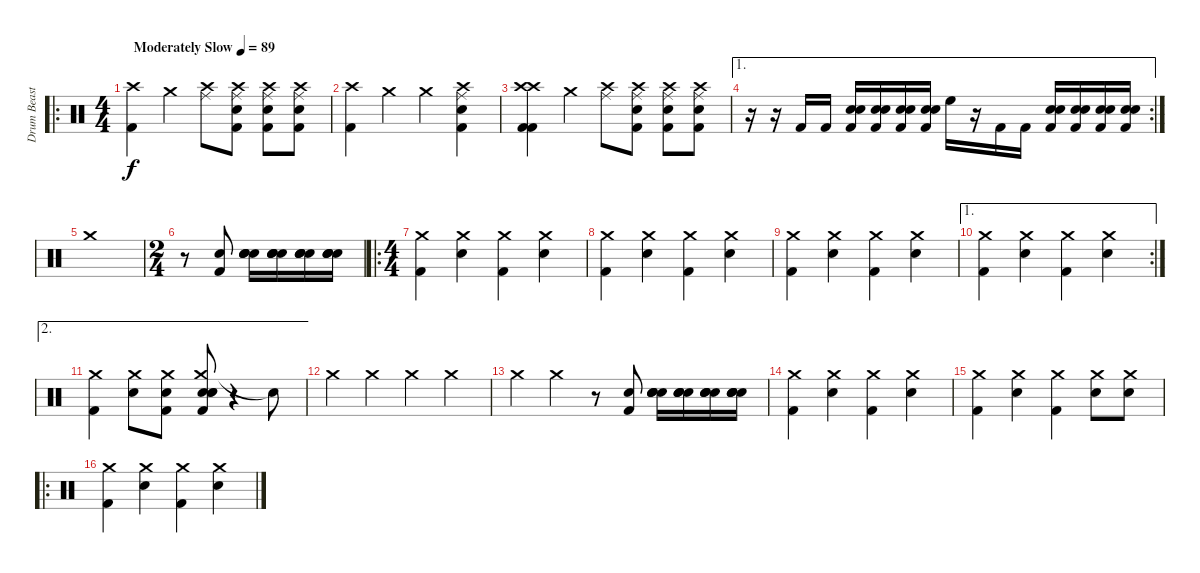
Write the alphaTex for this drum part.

\track ("Drum Beast Lars" "Drum Beast") {instrument percussion}
\staff {score}
\articulation defaults
\ro
\ts (4 4)
\tempo (89 "Moderately Slow")
\clef neutral
\ks c
("Crash high (hit)" "Kick (hit) 2").4{dy f} "Crash medium (hit)".4 ("Ride (middle)" "Crash high (hit)").8 ("Ride (middle)" "Crash high (hit)" "Electric Snare (hit)" "Kick (hit) 2").8 ("Ride (middle)" "Crash high (hit)" "Electric Snare (hit)" "Kick (hit) 2").8 ("Ride (middle)" "Crash high (hit)" "Electric Snare (hit)" "Kick (hit) 2").8 |
("Crash high (hit)" "Kick (hit) 2").4 "Crash medium (hit)".4 "Crash medium (hit)".4 ("Ride (middle)" "Crash high (hit)" "Electric Snare (hit)" "Kick (hit) 2").4 |
("Crash high (hit)" "Crash high (hit)" "Kick (hit) 2" "Kick (hit) 2").4 "Crash medium (hit)".4 ("Ride (middle)" "Crash high (hit)").8 ("Ride (middle)" "Crash high (hit)" "Electric Snare (hit)" "Kick (hit) 2").8 ("Ride (middle)" "Crash high (hit)" "Electric Snare (hit)" "Kick (hit) 2").8 ("Ride (middle)" "Crash high (hit)" "Electric Snare (hit)" "Kick (hit) 2").8 |
\ae 1
\rc 2
r.16 r.16 "Kick (hit) 2".16 "Kick (hit) 2".16 ("Snare (hit) 2" "Snare (hit) 2" "Kick (hit) 2").16 ("Snare (hit) 2" "Snare (hit) 2" "Kick (hit) 2").16 ("Snare (hit) 2" "Snare (hit) 2" "Kick (hit) 2").16 ("Snare (hit) 2" "Snare (hit) 2" "Kick (hit) 2").16 "High Floor Tom (hit)".16 r.16 "Kick (hit) 2".16 "Kick (hit) 2".16 ("Electric Snare (hit)" "Electric Snare (hit)" "Kick (hit) 2").16 ("Electric Snare (hit)" "Electric Snare (hit)" "Kick (hit) 2").16 ("Electric Snare (hit)" "Electric Snare (hit)" "Kick (hit) 2").16 ("Electric Snare (hit)" "Electric Snare (hit)" "Kick (hit) 2").16 |
"Crash medium (hit)".1 |
\ts (2 4)
r.8 ("Electric Snare (hit)" "Kick (hit) 2").8 ("Electric Snare (hit)" "Electric Snare (hit)" "Electric Snare (hit)" "Electric Snare (hit)").16 ("Electric Snare (hit)" "Electric Snare (hit)" "Electric Snare (hit)" "Electric Snare (hit)").16 ("Electric Snare (hit)" "Electric Snare (hit)" "Electric Snare (hit)" "Electric Snare (hit)").16 ("Electric Snare (hit)" "Electric Snare (hit)" "Electric Snare (hit)" "Electric Snare (hit)").16 |
\ro
\ts (4 4)
("Crash medium (hit)" "Kick (hit) 2").4 ("Crash medium (hit)" "Electric Snare (hit)").4 ("Crash medium (hit)" "Kick (hit) 2").4 ("Crash medium (hit)" "Electric Snare (hit)").4 |
("Crash medium (hit)" "Kick (hit) 2").4 ("Crash medium (hit)" "Electric Snare (hit)").4 ("Crash medium (hit)" "Kick (hit) 2").4 ("Crash medium (hit)" "Electric Snare (hit)").4 |
("Crash medium (hit)" "Kick (hit) 2").4 ("Crash medium (hit)" "Electric Snare (hit)").4 ("Crash medium (hit)" "Kick (hit) 2").4 ("Crash medium (hit)" "Electric Snare (hit)").4 |
\ae 1
\rc 2
("Crash medium (hit)" "Kick (hit) 2").4 ("Crash medium (hit)" "Electric Snare (hit)").4 ("Crash medium (hit)" "Kick (hit) 2").4 ("Crash medium (hit)" "Electric Snare (hit)").4 |
\ae 2
("Crash medium (hit)" "Kick (hit) 2").4 ("Crash medium (hit)" "Electric Snare (hit)").8 ("Crash medium (hit)" "Electric Snare (hit)" "Kick (hit) 2").8 ("Crash medium (hit)" "Electric Snare (hit)" "Electric Snare (hit)" "Electric Snare (hit)" "Kick (hit) 2").8 r.4 "Snare (hit)"{t}.8 |
"Crash medium (hit)".4 "Crash medium (hit)".4 "Crash medium (hit)".4 "Crash medium (hit)".4 |
"Crash medium (hit)".4 "Crash medium (hit)".4 r.8 ("Electric Snare (hit)" "Kick (hit) 2").8 ("Electric Snare (hit)" "Electric Snare (hit)" "Electric Snare (hit)" "Electric Snare (hit)").16 ("Electric Snare (hit)" "Electric Snare (hit)" "Electric Snare (hit)" "Electric Snare (hit)").16 ("Electric Snare (hit)" "Electric Snare (hit)" "Electric Snare (hit)" "Electric Snare (hit)").16 ("Electric Snare (hit)" "Electric Snare (hit)" "Electric Snare (hit)" "Electric Snare (hit)").16 |
("Crash medium (hit)" "Kick (hit) 2").4 ("Crash medium (hit)" "Electric Snare (hit)").4 ("Crash medium (hit)" "Kick (hit) 2").4 ("Crash medium (hit)" "Electric Snare (hit)").4 |
("Crash medium (hit)" "Kick (hit) 2").4 ("Crash medium (hit)" "Electric Snare (hit)").4 ("Crash medium (hit)" "Kick (hit) 2").4 ("Crash medium (hit)" "Electric Snare (hit)").8 ("Crash medium (hit)" "Electric Snare (hit)").8 |
\ro
("Crash medium (hit)" "Kick (hit) 2").4 ("Crash medium (hit)" "Electric Snare (hit)").4 ("Crash medium (hit)" "Kick (hit) 2").4 ("Crash medium (hit)" "Electric Snare (hit)").4
